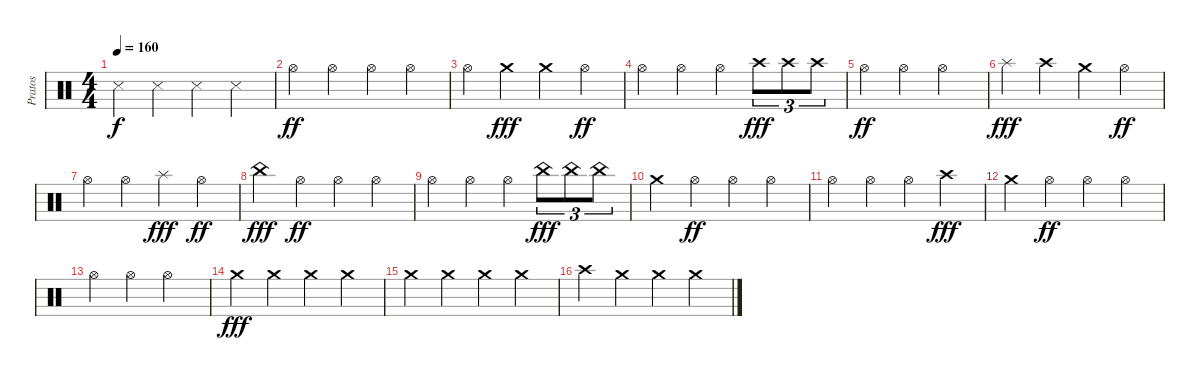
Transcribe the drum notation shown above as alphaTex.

\track ("Pratos" "Pratos") {instrument percussion}
\staff {score}
\articulation defaults
\ts (4 4)
\tempo 160
\clef neutral
\ks c "Snare (side stick) 3".4{dy f} "Snare (side stick) 3".4 "Snare (side stick) 3".4 "Snare (side stick) 3".4
|
"Hi-Hat (open)".4{dy ff} "Hi-Hat (open)".4 "Hi-Hat (open)".4 "Hi-Hat (open)".4 |
"Hi-Hat (open)".4 "Crash medium (hit)".4{dy fff} "Crash medium (hit)".4 "Hi-Hat (open)".4{dy ff} |
"Hi-Hat (open)".4 "Hi-Hat (open)".4 "Hi-Hat (open)".4 "Crash high (hit)".8{tu (3 2) dy fff} "Crash high (hit)".8{tu (3 2)} "Crash high (hit)".8{tu (3 2)} |
"Hi-Hat (open)".4{dy ff} "Hi-Hat (open)".4 "Hi-Hat (open)".2 |
"Splash (hit)".4{dy fff} "Crash high (hit)".4 "Crash medium (hit)".4 "Hi-Hat (open)".4{dy ff} |
"Hi-Hat (open)".4 "Hi-Hat (open)".4 "Splash (hit)".4{dy fff} "Hi-Hat (open)".4{dy ff} |
"China (hit)".4{dy fff} "Hi-Hat (open)".4{dy ff} "Hi-Hat (open)".4 "Hi-Hat (open)".4 |
"Hi-Hat (open)".4 "Hi-Hat (open)".4 "Hi-Hat (open)".4 "China (hit)".8{tu (3 2) dy fff} "China (hit)".8{tu (3 2)} "China (hit)".8{tu (3 2)} |
"Crash medium (hit)".4 "Hi-Hat (open)".4{dy ff} "Hi-Hat (open)".4 "Hi-Hat (open)".4 |
"Hi-Hat (open)".4 "Hi-Hat (open)".4 "Hi-Hat (open)".4 "Crash high (hit)".4{dy fff} |
"Crash medium (hit)".4 "Hi-Hat (open)".4{dy ff} "Hi-Hat (open)".4 "Hi-Hat (open)".4 |
"Hi-Hat (open)".4 "Hi-Hat (open)".4 "Hi-Hat (open)".2 |
"Crash medium (hit)".4{dy fff} "Crash medium (hit)".4 "Crash medium (hit)".4 "Crash medium (hit)".4 |
"Crash medium (hit)".4 "Crash medium (hit)".4 "Crash medium (hit)".4 "Crash medium (hit)".4 |
"Crash high (hit)".4 "Crash medium (hit)".4 "Crash medium (hit)".4 "Crash medium (hit)".4
